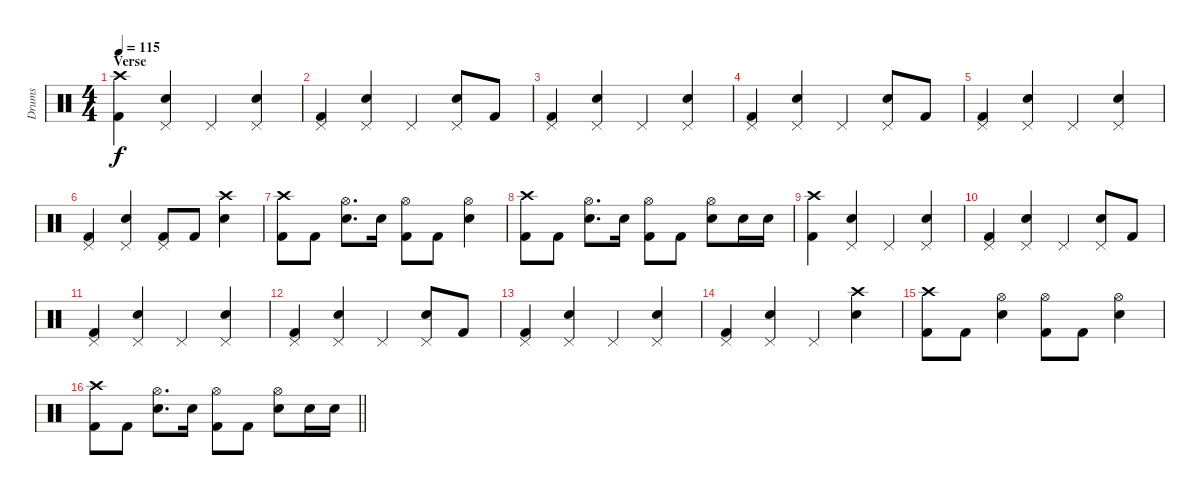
\track ("Drums" "Drums") {instrument percussion}
\staff {score}
\articulation defaults
\ts (4 4)
\section ("" "Verse")
\tempo 115
\clef neutral
\ks c
("Crash high (hit)" "Kick (hit) 2").4{dy f} ("Pedal Hi-Hat (hit)" "Snare (hit) 2").4 "Pedal Hi-Hat (hit)".4 ("Pedal Hi-Hat (hit)" "Snare (hit) 2").4 |
("Pedal Hi-Hat (hit)" "Kick (hit) 2").4 ("Pedal Hi-Hat (hit)" "Snare (hit) 2").4 "Pedal Hi-Hat (hit)".4 ("Pedal Hi-Hat (hit)" "Snare (hit) 2").8 "Kick (hit) 2".8 |
("Pedal Hi-Hat (hit)" "Kick (hit) 2").4 ("Pedal Hi-Hat (hit)" "Snare (hit) 2").4 "Pedal Hi-Hat (hit)".4 ("Pedal Hi-Hat (hit)" "Snare (hit) 2").4 |
("Pedal Hi-Hat (hit)" "Kick (hit) 2").4 ("Pedal Hi-Hat (hit)" "Snare (hit) 2").4 "Pedal Hi-Hat (hit)".4 ("Pedal Hi-Hat (hit)" "Snare (hit) 2").8 "Kick (hit) 2".8 |
("Pedal Hi-Hat (hit)" "Kick (hit) 2").4 ("Pedal Hi-Hat (hit)" "Snare (hit) 2").4 "Pedal Hi-Hat (hit)".4 ("Pedal Hi-Hat (hit)" "Snare (hit) 2").4 |
("Pedal Hi-Hat (hit)" "Kick (hit) 2").4 ("Pedal Hi-Hat (hit)" "Snare (hit) 2").4 ("Pedal Hi-Hat (hit)" "Kick (hit) 2").8 "Kick (hit) 2".8 ("Crash high (hit)" "Snare (hit) 2").4 |
("Crash high (hit)" "Kick (hit) 2").8 "Kick (hit) 2".8 ("Hi-Hat (open)" "Snare (hit) 2").8{d} "Snare (hit) 2".16 ("Hi-Hat (open)" "Kick (hit) 2").8 "Kick (hit) 2".8 ("Hi-Hat (open)" "Snare (hit) 2").4 |
("Crash high (hit)" "Kick (hit) 2").8 "Kick (hit) 2".8 ("Hi-Hat (open)" "Snare (hit) 2").8{d} "Snare (hit) 2".16 ("Hi-Hat (open)" "Kick (hit) 2").8 "Kick (hit) 2".8 ("Hi-Hat (open)" "Snare (hit) 2").8 "Snare (hit) 2".16 "Snare (hit) 2".16 |
("Crash high (hit)" "Kick (hit) 2").4 ("Pedal Hi-Hat (hit)" "Snare (hit) 2").4 "Pedal Hi-Hat (hit)".4 ("Pedal Hi-Hat (hit)" "Snare (hit) 2").4 |
("Pedal Hi-Hat (hit)" "Kick (hit) 2").4 ("Pedal Hi-Hat (hit)" "Snare (hit) 2").4 "Pedal Hi-Hat (hit)".4 ("Pedal Hi-Hat (hit)" "Snare (hit) 2").8 "Kick (hit) 2".8 |
("Pedal Hi-Hat (hit)" "Kick (hit) 2").4 ("Pedal Hi-Hat (hit)" "Snare (hit) 2").4 "Pedal Hi-Hat (hit)".4 ("Pedal Hi-Hat (hit)" "Snare (hit) 2").4 |
("Pedal Hi-Hat (hit)" "Kick (hit) 2").4 ("Pedal Hi-Hat (hit)" "Snare (hit) 2").4 "Pedal Hi-Hat (hit)".4 ("Pedal Hi-Hat (hit)" "Snare (hit) 2").8 "Kick (hit) 2".8 |
("Pedal Hi-Hat (hit)" "Kick (hit) 2").4 ("Pedal Hi-Hat (hit)" "Snare (hit) 2").4 "Pedal Hi-Hat (hit)".4 ("Pedal Hi-Hat (hit)" "Snare (hit) 2").4 |
("Pedal Hi-Hat (hit)" "Kick (hit) 2").4 ("Pedal Hi-Hat (hit)" "Snare (hit) 2").4 "Pedal Hi-Hat (hit)".4 ("Crash high (hit)" "Snare (hit) 2").4 |
("Crash high (hit)" "Kick (hit) 2").8 "Kick (hit) 2".8 ("Hi-Hat (open)" "Snare (hit) 2").4 ("Hi-Hat (open)" "Kick (hit) 2").8 "Kick (hit) 2".8 ("Hi-Hat (open)" "Snare (hit) 2").4 |
\barLineRight lightlight
("Crash high (hit)" "Kick (hit) 2").8 "Kick (hit) 2".8 ("Hi-Hat (open)" "Snare (hit) 2").8{d} "Snare (hit) 2".16 ("Hi-Hat (open)" "Kick (hit) 2").8 "Kick (hit) 2".8 ("Hi-Hat (open)" "Snare (hit) 2").8 "Snare (hit) 2".16 "Snare (hit) 2".16
